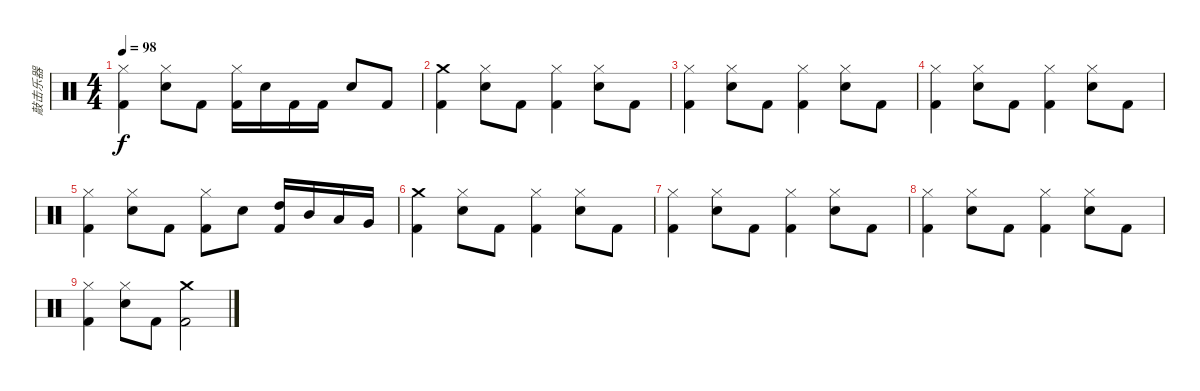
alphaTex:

\track ("敲击乐器" "敲击乐器") {instrument percussion}
\staff {score}
\articulation defaults
\ts (4 4)
\tempo 98
\clef neutral
\ks c
("Hi-Hat (closed)" "Kick (hit) 2").4{dy f} ("Hi-Hat (closed)" "Snare (hit) 2").8 "Kick (hit) 2".8 ("Hi-Hat (closed)" "Kick (hit) 2").16 "Snare (hit) 2".16 "Kick (hit) 2".16 "Kick (hit) 2".16 "Snare (hit) 2".8 "Kick (hit) 2".8 |
("Crash medium (hit)" "Kick (hit) 2").4 ("Hi-Hat (closed)" "Snare (hit) 2").8 "Kick (hit) 2".8 ("Hi-Hat (closed)" "Kick (hit) 2").4 ("Hi-Hat (closed)" "Snare (hit) 2").8 "Kick (hit) 2".8 |
("Hi-Hat (closed)" "Kick (hit) 2").4 ("Hi-Hat (closed)" "Snare (hit) 2").8 "Kick (hit) 2".8 ("Hi-Hat (closed)" "Kick (hit) 2").4 ("Hi-Hat (closed)" "Snare (hit) 2").8 "Kick (hit) 2".8 |
("Hi-Hat (closed)" "Kick (hit) 2").4 ("Hi-Hat (closed)" "Snare (hit) 2").8 "Kick (hit) 2".8 ("Hi-Hat (closed)" "Kick (hit) 2").4 ("Hi-Hat (closed)" "Snare (hit) 2").8 "Kick (hit) 2".8 |
("Hi-Hat (closed)" "Kick (hit) 2").4 ("Hi-Hat (closed)" "Snare (hit) 2").8 "Kick (hit) 2".8 ("Hi-Hat (closed)" "Kick (hit) 2").8 "Snare (hit) 2".8 ("High Tom (hit)" "Kick (hit) 2").16 "Mid Tom (hit)".16 "Low Tom (hit)".16 "Very Low Tom (hit)".16 |
("Crash medium (hit)" "Kick (hit) 2").4 ("Hi-Hat (closed)" "Snare (hit) 2").8 "Kick (hit) 2".8 ("Hi-Hat (closed)" "Kick (hit) 2").4 ("Hi-Hat (closed)" "Snare (hit) 2").8 "Kick (hit) 2".8 |
("Hi-Hat (closed)" "Kick (hit) 2").4 ("Hi-Hat (closed)" "Snare (hit) 2").8 "Kick (hit) 2".8 ("Hi-Hat (closed)" "Kick (hit) 2").4 ("Hi-Hat (closed)" "Snare (hit) 2").8 "Kick (hit) 2".8 |
("Hi-Hat (closed)" "Kick (hit) 2").4 ("Hi-Hat (closed)" "Snare (hit) 2").8 "Kick (hit) 2".8 ("Hi-Hat (closed)" "Kick (hit) 2").4 ("Hi-Hat (closed)" "Snare (hit) 2").8 "Kick (hit) 2".8 |
("Hi-Hat (closed)" "Kick (hit) 2").4 ("Hi-Hat (closed)" "Snare (hit) 2").8 "Kick (hit) 2".8 ("Crash medium (hit)" "Kick (hit) 2").2
